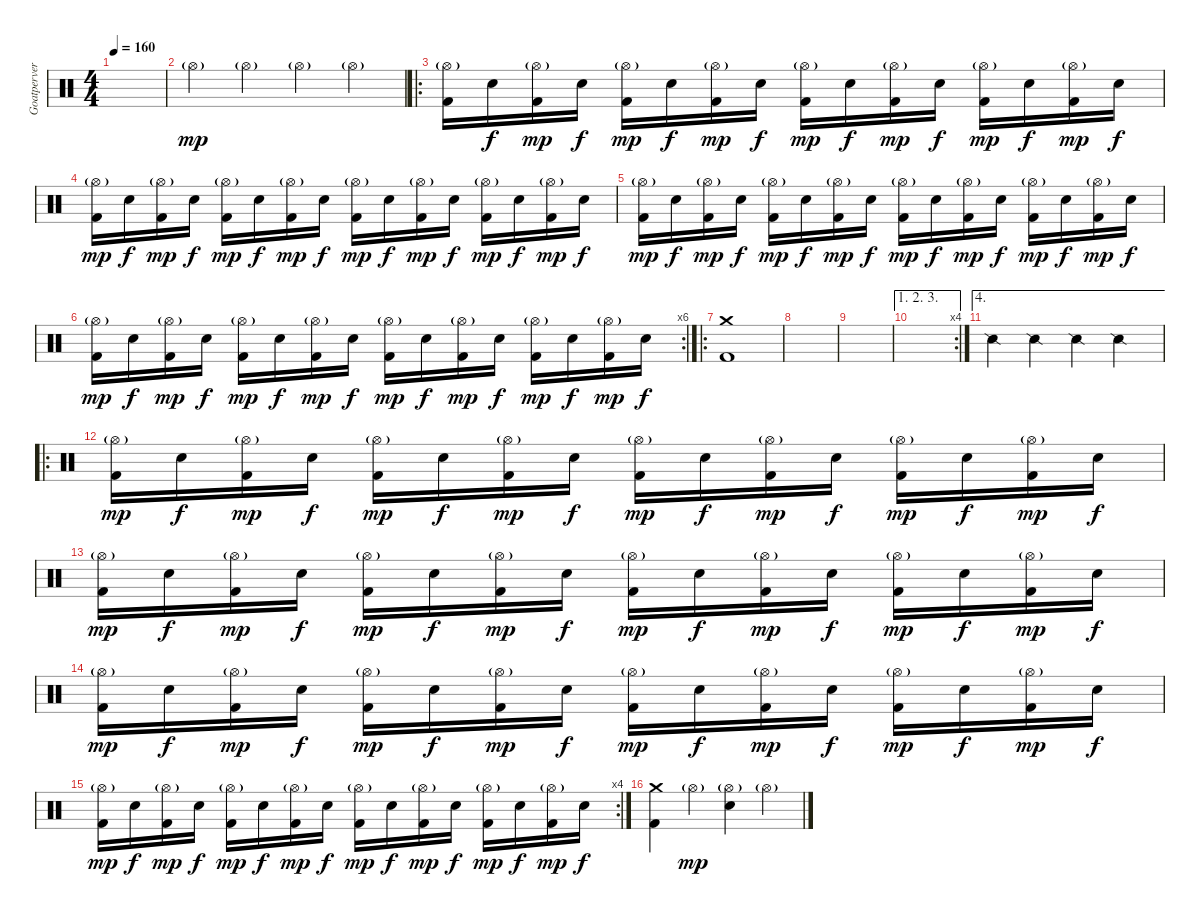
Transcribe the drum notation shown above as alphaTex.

\track ("Goatpervertor " "Goatperver") {instrument percussion}
\staff {score}
\articulation defaults
\ts (4 4)
\tempo 160
\clef neutral
\ks c
|
"Hi-Hat (open)"{g}.4{dy mp} "Hi-Hat (open)"{g}.4 "Hi-Hat (open)"{g}.4 "Hi-Hat (open)"{g}.4 |
\ro
("Hi-Hat (open)"{g} "Kick (hit) 2").16 "Electric Snare (hit)".16{dy f} ("Hi-Hat (open)"{g} "Kick (hit) 2").16{dy mp} "Electric Snare (hit)".16{dy f} ("Hi-Hat (open)"{g} "Kick (hit) 2").16{dy mp} "Electric Snare (hit)".16{dy f} ("Hi-Hat (open)"{g} "Kick (hit) 2").16{dy mp} "Electric Snare (hit)".16{dy f} ("Hi-Hat (open)"{g} "Kick (hit) 2").16{dy mp} "Electric Snare (hit)".16{dy f} ("Hi-Hat (open)"{g} "Kick (hit) 2").16{dy mp} "Electric Snare (hit)".16{dy f} ("Hi-Hat (open)"{g} "Kick (hit) 2").16{dy mp} "Electric Snare (hit)".16{dy f} ("Hi-Hat (open)"{g} "Kick (hit) 2").16{dy mp} "Electric Snare (hit)".16{dy f} |
("Hi-Hat (open)"{g} "Kick (hit) 2").16{dy mp} "Electric Snare (hit)".16{dy f} ("Hi-Hat (open)"{g} "Kick (hit) 2").16{dy mp} "Electric Snare (hit)".16{dy f} ("Hi-Hat (open)"{g} "Kick (hit) 2").16{dy mp} "Electric Snare (hit)".16{dy f} ("Hi-Hat (open)"{g} "Kick (hit) 2").16{dy mp} "Electric Snare (hit)".16{dy f} ("Hi-Hat (open)"{g} "Kick (hit) 2").16{dy mp} "Electric Snare (hit)".16{dy f} ("Hi-Hat (open)"{g} "Kick (hit) 2").16{dy mp} "Electric Snare (hit)".16{dy f} ("Hi-Hat (open)"{g} "Kick (hit) 2").16{dy mp} "Electric Snare (hit)".16{dy f} ("Hi-Hat (open)"{g} "Kick (hit) 2").16{dy mp} "Electric Snare (hit)".16{dy f} |
("Hi-Hat (open)"{g} "Kick (hit) 2").16{dy mp} "Electric Snare (hit)".16{dy f} ("Hi-Hat (open)"{g} "Kick (hit) 2").16{dy mp} "Electric Snare (hit)".16{dy f} ("Hi-Hat (open)"{g} "Kick (hit) 2").16{dy mp} "Electric Snare (hit)".16{dy f} ("Hi-Hat (open)"{g} "Kick (hit) 2").16{dy mp} "Electric Snare (hit)".16{dy f} ("Hi-Hat (open)"{g} "Kick (hit) 2").16{dy mp} "Electric Snare (hit)".16{dy f} ("Hi-Hat (open)"{g} "Kick (hit) 2").16{dy mp} "Electric Snare (hit)".16{dy f} ("Hi-Hat (open)"{g} "Kick (hit) 2").16{dy mp} "Electric Snare (hit)".16{dy f} ("Hi-Hat (open)"{g} "Kick (hit) 2").16{dy mp} "Electric Snare (hit)".16{dy f} |
\rc 6
("Hi-Hat (open)"{g} "Kick (hit) 2").16{dy mp} "Electric Snare (hit)".16{dy f} ("Hi-Hat (open)"{g} "Kick (hit) 2").16{dy mp} "Electric Snare (hit)".16{dy f} ("Hi-Hat (open)"{g} "Kick (hit) 2").16{dy mp} "Electric Snare (hit)".16{dy f} ("Hi-Hat (open)"{g} "Kick (hit) 2").16{dy mp} "Electric Snare (hit)".16{dy f} ("Hi-Hat (open)"{g} "Kick (hit) 2").16{dy mp} "Electric Snare (hit)".16{dy f} ("Hi-Hat (open)"{g} "Kick (hit) 2").16{dy mp} "Electric Snare (hit)".16{dy f} ("Hi-Hat (open)"{g} "Kick (hit) 2").16{dy mp} "Electric Snare (hit)".16{dy f} ("Hi-Hat (open)"{g} "Kick (hit) 2").16{dy mp} "Electric Snare (hit)".16{dy f} |
\ro
("Crash medium (hit)" "Kick (hit) 2").1 |
|
|
\ae (1 2 3)
\rc 4
|
\ae 4 "Snare (side stick) 2".4 "Snare (side stick) 2".4 "Snare (side stick) 2".4 "Snare (side stick) 2".4
|
\ro
("Hi-Hat (open)"{g} "Kick (hit) 2").16{dy mp} "Electric Snare (hit)".16{dy f} ("Hi-Hat (open)"{g} "Kick (hit) 2").16{dy mp} "Electric Snare (hit)".16{dy f} ("Hi-Hat (open)"{g} "Kick (hit) 2").16{dy mp} "Electric Snare (hit)".16{dy f} ("Hi-Hat (open)"{g} "Kick (hit) 2").16{dy mp} "Electric Snare (hit)".16{dy f} ("Hi-Hat (open)"{g} "Kick (hit) 2").16{dy mp} "Electric Snare (hit)".16{dy f} ("Hi-Hat (open)"{g} "Kick (hit) 2").16{dy mp} "Electric Snare (hit)".16{dy f} ("Hi-Hat (open)"{g} "Kick (hit) 2").16{dy mp} "Electric Snare (hit)".16{dy f} ("Hi-Hat (open)"{g} "Kick (hit) 2").16{dy mp} "Electric Snare (hit)".16{dy f} |
("Hi-Hat (open)"{g} "Kick (hit) 2").16{dy mp} "Electric Snare (hit)".16{dy f} ("Hi-Hat (open)"{g} "Kick (hit) 2").16{dy mp} "Electric Snare (hit)".16{dy f} ("Hi-Hat (open)"{g} "Kick (hit) 2").16{dy mp} "Electric Snare (hit)".16{dy f} ("Hi-Hat (open)"{g} "Kick (hit) 2").16{dy mp} "Electric Snare (hit)".16{dy f} ("Hi-Hat (open)"{g} "Kick (hit) 2").16{dy mp} "Electric Snare (hit)".16{dy f} ("Hi-Hat (open)"{g} "Kick (hit) 2").16{dy mp} "Electric Snare (hit)".16{dy f} ("Hi-Hat (open)"{g} "Kick (hit) 2").16{dy mp} "Electric Snare (hit)".16{dy f} ("Hi-Hat (open)"{g} "Kick (hit) 2").16{dy mp} "Electric Snare (hit)".16{dy f} |
("Hi-Hat (open)"{g} "Kick (hit) 2").16{dy mp} "Electric Snare (hit)".16{dy f} ("Hi-Hat (open)"{g} "Kick (hit) 2").16{dy mp} "Electric Snare (hit)".16{dy f} ("Hi-Hat (open)"{g} "Kick (hit) 2").16{dy mp} "Electric Snare (hit)".16{dy f} ("Hi-Hat (open)"{g} "Kick (hit) 2").16{dy mp} "Electric Snare (hit)".16{dy f} ("Hi-Hat (open)"{g} "Kick (hit) 2").16{dy mp} "Electric Snare (hit)".16{dy f} ("Hi-Hat (open)"{g} "Kick (hit) 2").16{dy mp} "Electric Snare (hit)".16{dy f} ("Hi-Hat (open)"{g} "Kick (hit) 2").16{dy mp} "Electric Snare (hit)".16{dy f} ("Hi-Hat (open)"{g} "Kick (hit) 2").16{dy mp} "Electric Snare (hit)".16{dy f} |
\rc 4
("Hi-Hat (open)"{g} "Kick (hit) 2").16{dy mp} "Electric Snare (hit)".16{dy f} ("Hi-Hat (open)"{g} "Kick (hit) 2").16{dy mp} "Electric Snare (hit)".16{dy f} ("Hi-Hat (open)"{g} "Kick (hit) 2").16{dy mp} "Electric Snare (hit)".16{dy f} ("Hi-Hat (open)"{g} "Kick (hit) 2").16{dy mp} "Electric Snare (hit)".16{dy f} ("Hi-Hat (open)"{g} "Kick (hit) 2").16{dy mp} "Electric Snare (hit)".16{dy f} ("Hi-Hat (open)"{g} "Kick (hit) 2").16{dy mp} "Electric Snare (hit)".16{dy f} ("Hi-Hat (open)"{g} "Kick (hit) 2").16{dy mp} "Electric Snare (hit)".16{dy f} ("Hi-Hat (open)"{g} "Kick (hit) 2").16{dy mp} "Electric Snare (hit)".16{dy f} |
("Crash medium (hit)" "Kick (hit) 2").4 "Hi-Hat (open)"{g}.4{dy mp} ("Hi-Hat (open)"{g} "Electric Snare (hit)").4 "Hi-Hat (open)"{g}.4
